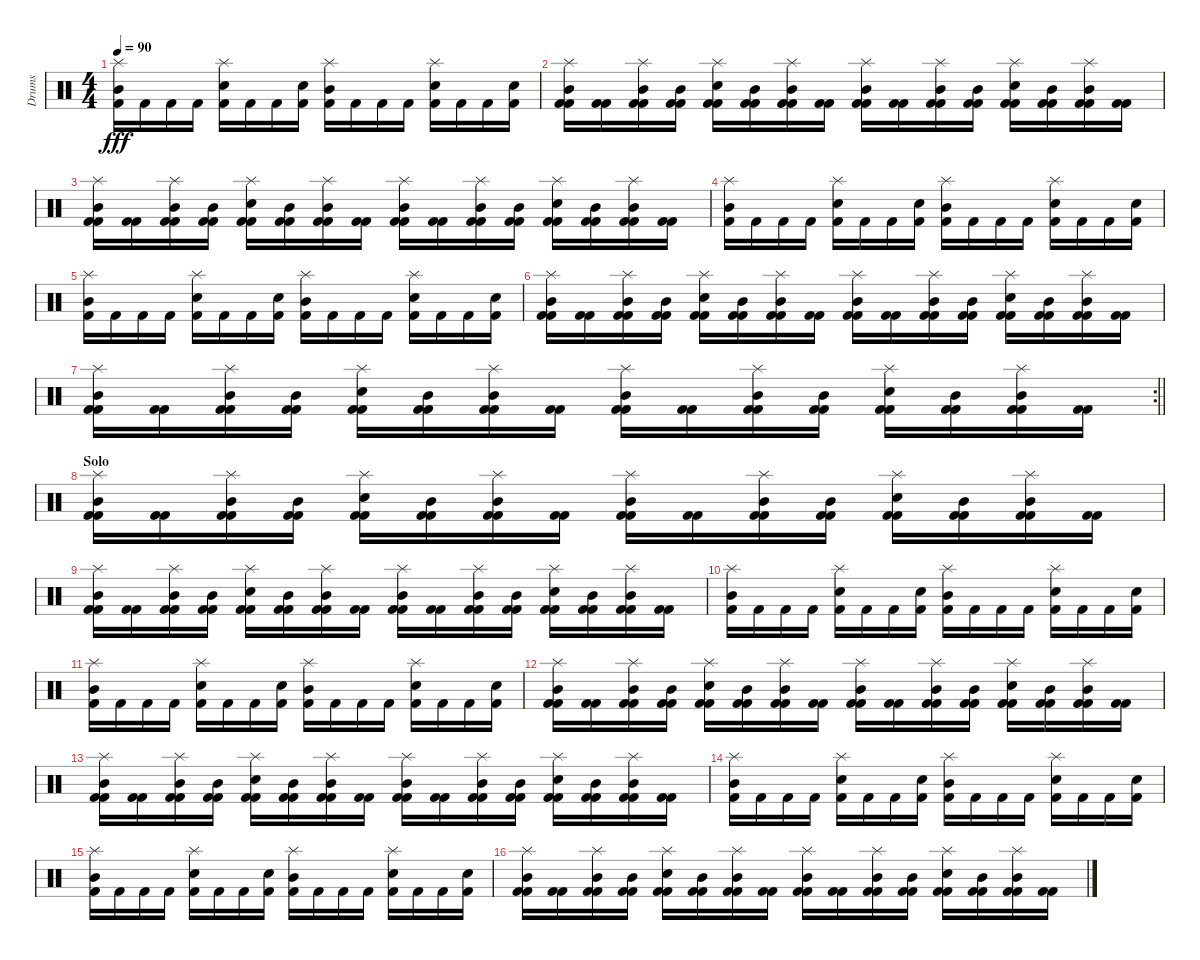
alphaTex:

\track ("Drums" "Drums") {instrument percussion}
\staff {score}
\articulation defaults
\ts (4 4)
\tempo 90
\clef neutral
\ks c
("Splash (hit)" "Mid Tom (hit)" "Kick (hit) 2").16{dy fff} "Kick (hit) 2".16 "Kick (hit) 2".16 "Kick (hit) 2".16 ("Splash (hit)" "Electric Snare (hit)" "Kick (hit) 2").16 "Kick (hit) 2".16 "Kick (hit) 2".16 ("Electric Snare (hit)" "Kick (hit) 2").16 ("Splash (hit)" "Mid Tom (hit)" "Kick (hit) 2").16 "Kick (hit) 2".16 "Kick (hit) 2".16 "Kick (hit) 2".16 ("Splash (hit)" "Electric Snare (hit)" "Kick (hit) 2").16 "Kick (hit) 2".16 "Kick (hit) 2".16 ("Electric Snare (hit)" "Kick (hit) 2").16 |
("Kick (hit) 2" "Splash (hit)" "Mid Tom (hit)" "Kick (hit) 2").16 ("Kick (hit) 2" "Kick (hit) 2").16 ("Kick (hit) 2" "Splash (hit)" "Mid Tom (hit)" "Kick (hit) 2").16 ("Kick (hit) 2" "Mid Tom (hit)" "Kick (hit) 2").16 ("Kick (hit) 2" "Splash (hit)" "Electric Snare (hit)" "Kick (hit) 2").16 ("Kick (hit) 2" "Mid Tom (hit)" "Kick (hit) 2").16 ("Kick (hit) 2" "Splash (hit)" "Mid Tom (hit)" "Kick (hit) 2").16 ("Kick (hit) 2" "Kick (hit) 2").16 ("Kick (hit) 2" "Splash (hit)" "Mid Tom (hit)" "Kick (hit) 2").16 ("Kick (hit) 2" "Kick (hit) 2").16 ("Kick (hit) 2" "Splash (hit)" "Mid Tom (hit)" "Kick (hit) 2").16 ("Kick (hit) 2" "Mid Tom (hit)" "Kick (hit) 2").16 ("Kick (hit) 2" "Splash (hit)" "Electric Snare (hit)" "Kick (hit) 2").16 ("Kick (hit) 2" "Mid Tom (hit)" "Kick (hit) 2").16 ("Kick (hit) 2" "Splash (hit)" "Mid Tom (hit)" "Kick (hit) 2").16 ("Kick (hit) 2" "Kick (hit) 2").16 |
("Kick (hit) 2" "Splash (hit)" "Mid Tom (hit)" "Kick (hit) 2").16 ("Kick (hit) 2" "Kick (hit) 2").16 ("Kick (hit) 2" "Splash (hit)" "Mid Tom (hit)" "Kick (hit) 2").16 ("Kick (hit) 2" "Mid Tom (hit)" "Kick (hit) 2").16 ("Kick (hit) 2" "Splash (hit)" "Electric Snare (hit)" "Kick (hit) 2").16 ("Kick (hit) 2" "Mid Tom (hit)" "Kick (hit) 2").16 ("Kick (hit) 2" "Splash (hit)" "Mid Tom (hit)" "Kick (hit) 2").16 ("Kick (hit) 2" "Kick (hit) 2").16 ("Kick (hit) 2" "Splash (hit)" "Mid Tom (hit)" "Kick (hit) 2").16 ("Kick (hit) 2" "Kick (hit) 2").16 ("Kick (hit) 2" "Splash (hit)" "Mid Tom (hit)" "Kick (hit) 2").16 ("Kick (hit) 2" "Mid Tom (hit)" "Kick (hit) 2").16 ("Kick (hit) 2" "Splash (hit)" "Electric Snare (hit)" "Kick (hit) 2").16 ("Kick (hit) 2" "Mid Tom (hit)" "Kick (hit) 2").16 ("Kick (hit) 2" "Splash (hit)" "Mid Tom (hit)" "Kick (hit) 2").16 ("Kick (hit) 2" "Kick (hit) 2").16 |
("Splash (hit)" "Mid Tom (hit)" "Kick (hit) 2").16 "Kick (hit) 2".16 "Kick (hit) 2".16 "Kick (hit) 2".16 ("Splash (hit)" "Electric Snare (hit)" "Kick (hit) 2").16 "Kick (hit) 2".16 "Kick (hit) 2".16 ("Electric Snare (hit)" "Kick (hit) 2").16 ("Splash (hit)" "Mid Tom (hit)" "Kick (hit) 2").16 "Kick (hit) 2".16 "Kick (hit) 2".16 "Kick (hit) 2".16 ("Splash (hit)" "Electric Snare (hit)" "Kick (hit) 2").16 "Kick (hit) 2".16 "Kick (hit) 2".16 ("Electric Snare (hit)" "Kick (hit) 2").16 |
("Splash (hit)" "Mid Tom (hit)" "Kick (hit) 2").16 "Kick (hit) 2".16 "Kick (hit) 2".16 "Kick (hit) 2".16 ("Splash (hit)" "Electric Snare (hit)" "Kick (hit) 2").16 "Kick (hit) 2".16 "Kick (hit) 2".16 ("Electric Snare (hit)" "Kick (hit) 2").16 ("Splash (hit)" "Mid Tom (hit)" "Kick (hit) 2").16 "Kick (hit) 2".16 "Kick (hit) 2".16 "Kick (hit) 2".16 ("Splash (hit)" "Electric Snare (hit)" "Kick (hit) 2").16 "Kick (hit) 2".16 "Kick (hit) 2".16 ("Electric Snare (hit)" "Kick (hit) 2").16 |
("Kick (hit) 2" "Splash (hit)" "Mid Tom (hit)" "Kick (hit) 2").16 ("Kick (hit) 2" "Kick (hit) 2").16 ("Kick (hit) 2" "Splash (hit)" "Mid Tom (hit)" "Kick (hit) 2").16 ("Kick (hit) 2" "Mid Tom (hit)" "Kick (hit) 2").16 ("Kick (hit) 2" "Splash (hit)" "Electric Snare (hit)" "Kick (hit) 2").16 ("Kick (hit) 2" "Mid Tom (hit)" "Kick (hit) 2").16 ("Kick (hit) 2" "Splash (hit)" "Mid Tom (hit)" "Kick (hit) 2").16 ("Kick (hit) 2" "Kick (hit) 2").16 ("Kick (hit) 2" "Splash (hit)" "Mid Tom (hit)" "Kick (hit) 2").16 ("Kick (hit) 2" "Kick (hit) 2").16 ("Kick (hit) 2" "Splash (hit)" "Mid Tom (hit)" "Kick (hit) 2").16 ("Kick (hit) 2" "Mid Tom (hit)" "Kick (hit) 2").16 ("Kick (hit) 2" "Splash (hit)" "Electric Snare (hit)" "Kick (hit) 2").16 ("Kick (hit) 2" "Mid Tom (hit)" "Kick (hit) 2").16 ("Kick (hit) 2" "Splash (hit)" "Mid Tom (hit)" "Kick (hit) 2").16 ("Kick (hit) 2" "Kick (hit) 2").16 |
\rc 2
\barLineRight lightlight
("Kick (hit) 2" "Splash (hit)" "Mid Tom (hit)" "Kick (hit) 2").16 ("Kick (hit) 2" "Kick (hit) 2").16 ("Kick (hit) 2" "Splash (hit)" "Mid Tom (hit)" "Kick (hit) 2").16 ("Kick (hit) 2" "Mid Tom (hit)" "Kick (hit) 2").16 ("Kick (hit) 2" "Splash (hit)" "Electric Snare (hit)" "Kick (hit) 2").16 ("Kick (hit) 2" "Mid Tom (hit)" "Kick (hit) 2").16 ("Kick (hit) 2" "Splash (hit)" "Mid Tom (hit)" "Kick (hit) 2").16 ("Kick (hit) 2" "Kick (hit) 2").16 ("Kick (hit) 2" "Splash (hit)" "Mid Tom (hit)" "Kick (hit) 2").16 ("Kick (hit) 2" "Kick (hit) 2").16 ("Kick (hit) 2" "Splash (hit)" "Mid Tom (hit)" "Kick (hit) 2").16 ("Kick (hit) 2" "Mid Tom (hit)" "Kick (hit) 2").16 ("Kick (hit) 2" "Splash (hit)" "Electric Snare (hit)" "Kick (hit) 2").16 ("Kick (hit) 2" "Mid Tom (hit)" "Kick (hit) 2").16 ("Kick (hit) 2" "Splash (hit)" "Mid Tom (hit)" "Kick (hit) 2").16 ("Kick (hit) 2" "Kick (hit) 2").16 |
\section ("" "Solo")
("Kick (hit) 2" "Splash (hit)" "Mid Tom (hit)" "Kick (hit) 2").16 ("Kick (hit) 2" "Kick (hit) 2").16 ("Kick (hit) 2" "Splash (hit)" "Mid Tom (hit)" "Kick (hit) 2").16 ("Kick (hit) 2" "Mid Tom (hit)" "Kick (hit) 2").16 ("Kick (hit) 2" "Splash (hit)" "Electric Snare (hit)" "Kick (hit) 2").16 ("Kick (hit) 2" "Mid Tom (hit)" "Kick (hit) 2").16 ("Kick (hit) 2" "Splash (hit)" "Mid Tom (hit)" "Kick (hit) 2").16 ("Kick (hit) 2" "Kick (hit) 2").16 ("Kick (hit) 2" "Splash (hit)" "Mid Tom (hit)" "Kick (hit) 2").16 ("Kick (hit) 2" "Kick (hit) 2").16 ("Kick (hit) 2" "Splash (hit)" "Mid Tom (hit)" "Kick (hit) 2").16 ("Kick (hit) 2" "Mid Tom (hit)" "Kick (hit) 2").16 ("Kick (hit) 2" "Splash (hit)" "Electric Snare (hit)" "Kick (hit) 2").16 ("Kick (hit) 2" "Mid Tom (hit)" "Kick (hit) 2").16 ("Kick (hit) 2" "Splash (hit)" "Mid Tom (hit)" "Kick (hit) 2").16 ("Kick (hit) 2" "Kick (hit) 2").16 |
("Kick (hit) 2" "Splash (hit)" "Mid Tom (hit)" "Kick (hit) 2").16 ("Kick (hit) 2" "Kick (hit) 2").16 ("Kick (hit) 2" "Splash (hit)" "Mid Tom (hit)" "Kick (hit) 2").16 ("Kick (hit) 2" "Mid Tom (hit)" "Kick (hit) 2").16 ("Kick (hit) 2" "Splash (hit)" "Electric Snare (hit)" "Kick (hit) 2").16 ("Kick (hit) 2" "Mid Tom (hit)" "Kick (hit) 2").16 ("Kick (hit) 2" "Splash (hit)" "Mid Tom (hit)" "Kick (hit) 2").16 ("Kick (hit) 2" "Kick (hit) 2").16 ("Kick (hit) 2" "Splash (hit)" "Mid Tom (hit)" "Kick (hit) 2").16 ("Kick (hit) 2" "Kick (hit) 2").16 ("Kick (hit) 2" "Splash (hit)" "Mid Tom (hit)" "Kick (hit) 2").16 ("Kick (hit) 2" "Mid Tom (hit)" "Kick (hit) 2").16 ("Kick (hit) 2" "Splash (hit)" "Electric Snare (hit)" "Kick (hit) 2").16 ("Kick (hit) 2" "Mid Tom (hit)" "Kick (hit) 2").16 ("Kick (hit) 2" "Splash (hit)" "Mid Tom (hit)" "Kick (hit) 2").16 ("Kick (hit) 2" "Kick (hit) 2").16 |
("Splash (hit)" "Mid Tom (hit)" "Kick (hit) 2").16 "Kick (hit) 2".16 "Kick (hit) 2".16 "Kick (hit) 2".16 ("Splash (hit)" "Electric Snare (hit)" "Kick (hit) 2").16 "Kick (hit) 2".16 "Kick (hit) 2".16 ("Electric Snare (hit)" "Kick (hit) 2").16 ("Splash (hit)" "Mid Tom (hit)" "Kick (hit) 2").16 "Kick (hit) 2".16 "Kick (hit) 2".16 "Kick (hit) 2".16 ("Splash (hit)" "Electric Snare (hit)" "Kick (hit) 2").16 "Kick (hit) 2".16 "Kick (hit) 2".16 ("Electric Snare (hit)" "Kick (hit) 2").16 |
("Splash (hit)" "Mid Tom (hit)" "Kick (hit) 2").16 "Kick (hit) 2".16 "Kick (hit) 2".16 "Kick (hit) 2".16 ("Splash (hit)" "Electric Snare (hit)" "Kick (hit) 2").16 "Kick (hit) 2".16 "Kick (hit) 2".16 ("Electric Snare (hit)" "Kick (hit) 2").16 ("Splash (hit)" "Mid Tom (hit)" "Kick (hit) 2").16 "Kick (hit) 2".16 "Kick (hit) 2".16 "Kick (hit) 2".16 ("Splash (hit)" "Electric Snare (hit)" "Kick (hit) 2").16 "Kick (hit) 2".16 "Kick (hit) 2".16 ("Electric Snare (hit)" "Kick (hit) 2").16 |
("Kick (hit) 2" "Splash (hit)" "Mid Tom (hit)" "Kick (hit) 2").16 ("Kick (hit) 2" "Kick (hit) 2").16 ("Kick (hit) 2" "Splash (hit)" "Mid Tom (hit)" "Kick (hit) 2").16 ("Kick (hit) 2" "Mid Tom (hit)" "Kick (hit) 2").16 ("Kick (hit) 2" "Splash (hit)" "Electric Snare (hit)" "Kick (hit) 2").16 ("Kick (hit) 2" "Mid Tom (hit)" "Kick (hit) 2").16 ("Kick (hit) 2" "Splash (hit)" "Mid Tom (hit)" "Kick (hit) 2").16 ("Kick (hit) 2" "Kick (hit) 2").16 ("Kick (hit) 2" "Splash (hit)" "Mid Tom (hit)" "Kick (hit) 2").16 ("Kick (hit) 2" "Kick (hit) 2").16 ("Kick (hit) 2" "Splash (hit)" "Mid Tom (hit)" "Kick (hit) 2").16 ("Kick (hit) 2" "Mid Tom (hit)" "Kick (hit) 2").16 ("Kick (hit) 2" "Splash (hit)" "Electric Snare (hit)" "Kick (hit) 2").16 ("Kick (hit) 2" "Mid Tom (hit)" "Kick (hit) 2").16 ("Kick (hit) 2" "Splash (hit)" "Mid Tom (hit)" "Kick (hit) 2").16 ("Kick (hit) 2" "Kick (hit) 2").16 |
("Kick (hit) 2" "Splash (hit)" "Mid Tom (hit)" "Kick (hit) 2").16 ("Kick (hit) 2" "Kick (hit) 2").16 ("Kick (hit) 2" "Splash (hit)" "Mid Tom (hit)" "Kick (hit) 2").16 ("Kick (hit) 2" "Mid Tom (hit)" "Kick (hit) 2").16 ("Kick (hit) 2" "Splash (hit)" "Electric Snare (hit)" "Kick (hit) 2").16 ("Kick (hit) 2" "Mid Tom (hit)" "Kick (hit) 2").16 ("Kick (hit) 2" "Splash (hit)" "Mid Tom (hit)" "Kick (hit) 2").16 ("Kick (hit) 2" "Kick (hit) 2").16 ("Kick (hit) 2" "Splash (hit)" "Mid Tom (hit)" "Kick (hit) 2").16 ("Kick (hit) 2" "Kick (hit) 2").16 ("Kick (hit) 2" "Splash (hit)" "Mid Tom (hit)" "Kick (hit) 2").16 ("Kick (hit) 2" "Mid Tom (hit)" "Kick (hit) 2").16 ("Kick (hit) 2" "Splash (hit)" "Electric Snare (hit)" "Kick (hit) 2").16 ("Kick (hit) 2" "Mid Tom (hit)" "Kick (hit) 2").16 ("Kick (hit) 2" "Splash (hit)" "Mid Tom (hit)" "Kick (hit) 2").16 ("Kick (hit) 2" "Kick (hit) 2").16 |
("Splash (hit)" "Mid Tom (hit)" "Kick (hit) 2").16 "Kick (hit) 2".16 "Kick (hit) 2".16 "Kick (hit) 2".16 ("Splash (hit)" "Electric Snare (hit)" "Kick (hit) 2").16 "Kick (hit) 2".16 "Kick (hit) 2".16 ("Electric Snare (hit)" "Kick (hit) 2").16 ("Splash (hit)" "Mid Tom (hit)" "Kick (hit) 2").16 "Kick (hit) 2".16 "Kick (hit) 2".16 "Kick (hit) 2".16 ("Splash (hit)" "Electric Snare (hit)" "Kick (hit) 2").16 "Kick (hit) 2".16 "Kick (hit) 2".16 ("Electric Snare (hit)" "Kick (hit) 2").16 |
("Splash (hit)" "Mid Tom (hit)" "Kick (hit) 2").16 "Kick (hit) 2".16 "Kick (hit) 2".16 "Kick (hit) 2".16 ("Splash (hit)" "Electric Snare (hit)" "Kick (hit) 2").16 "Kick (hit) 2".16 "Kick (hit) 2".16 ("Electric Snare (hit)" "Kick (hit) 2").16 ("Splash (hit)" "Mid Tom (hit)" "Kick (hit) 2").16 "Kick (hit) 2".16 "Kick (hit) 2".16 "Kick (hit) 2".16 ("Splash (hit)" "Electric Snare (hit)" "Kick (hit) 2").16 "Kick (hit) 2".16 "Kick (hit) 2".16 ("Electric Snare (hit)" "Kick (hit) 2").16 |
("Kick (hit) 2" "Splash (hit)" "Mid Tom (hit)" "Kick (hit) 2").16 ("Kick (hit) 2" "Kick (hit) 2").16 ("Kick (hit) 2" "Splash (hit)" "Mid Tom (hit)" "Kick (hit) 2").16 ("Kick (hit) 2" "Mid Tom (hit)" "Kick (hit) 2").16 ("Kick (hit) 2" "Splash (hit)" "Electric Snare (hit)" "Kick (hit) 2").16 ("Kick (hit) 2" "Mid Tom (hit)" "Kick (hit) 2").16 ("Kick (hit) 2" "Splash (hit)" "Mid Tom (hit)" "Kick (hit) 2").16 ("Kick (hit) 2" "Kick (hit) 2").16 ("Kick (hit) 2" "Splash (hit)" "Mid Tom (hit)" "Kick (hit) 2").16 ("Kick (hit) 2" "Kick (hit) 2").16 ("Kick (hit) 2" "Splash (hit)" "Mid Tom (hit)" "Kick (hit) 2").16 ("Kick (hit) 2" "Mid Tom (hit)" "Kick (hit) 2").16 ("Kick (hit) 2" "Splash (hit)" "Electric Snare (hit)" "Kick (hit) 2").16 ("Kick (hit) 2" "Mid Tom (hit)" "Kick (hit) 2").16 ("Kick (hit) 2" "Splash (hit)" "Mid Tom (hit)" "Kick (hit) 2").16 ("Kick (hit) 2" "Kick (hit) 2").16
